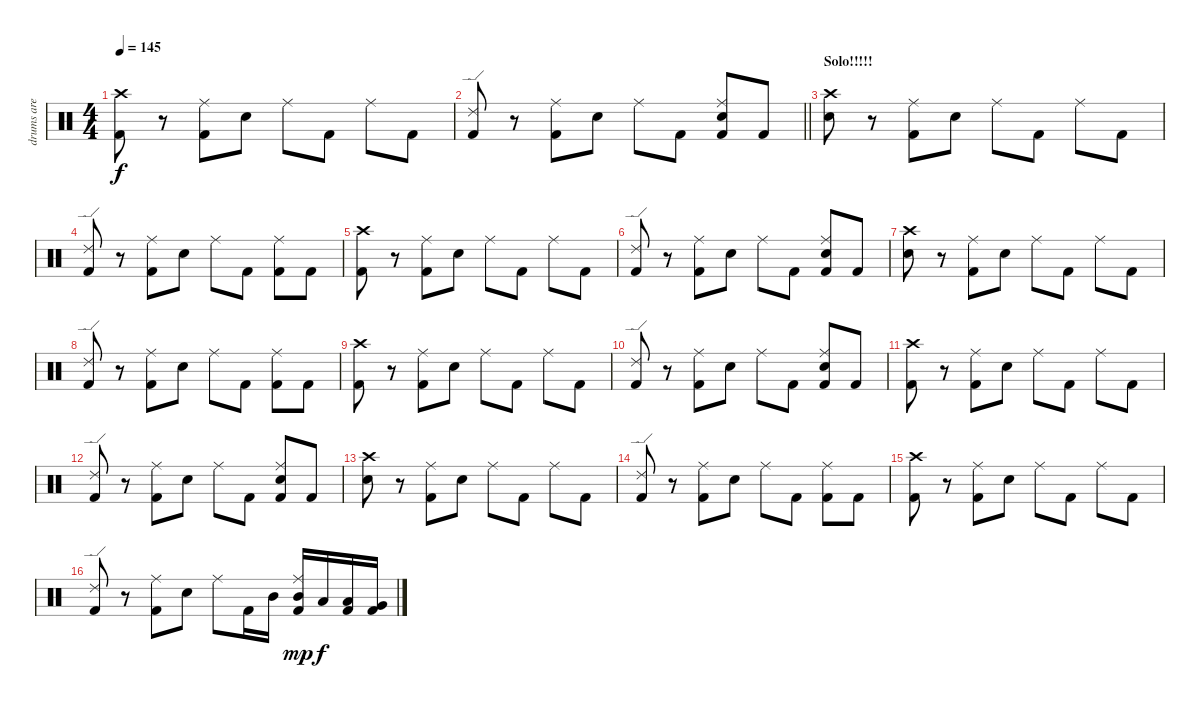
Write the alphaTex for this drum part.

\track ("drums are cool   >.<" "drums are ") {instrument percussion}
\staff {score}
\articulation defaults
\ts (4 4)
\tempo 145
\clef neutral
\ks c
("Crash high (hit)" "Kick (hit) 2").8{dy f} r.8 ("Ride (middle)" "Kick (hit) 2").8 "Snare (hit) 2".8 "Ride (middle)".8 "Kick (hit) 2".8 "Ride (middle)".8 "Kick (hit) 2".8 |
\barLineRight lightlight
("Ride (edge) 2" "Kick (hit) 2").8 r.8 ("Ride (middle)" "Kick (hit) 2").8 "Snare (hit) 2".8 "Ride (middle)".8 "Kick (hit) 2".8 ("Ride (middle)" "Snare (hit) 2" "Kick (hit) 2").8 "Kick (hit) 2".8 |
\section ("" "Solo!!!!!")
("Crash high (hit)" "Snare (hit) 2").8 r.8 ("Ride (middle)" "Kick (hit) 2").8 "Snare (hit) 2".8 "Ride (middle)".8 "Kick (hit) 2".8 "Ride (middle)".8 "Kick (hit) 2".8 |
("Ride (edge) 2" "Kick (hit) 2").8 r.8 ("Ride (middle)" "Kick (hit) 2").8 "Snare (hit) 2".8 "Ride (middle)".8 "Kick (hit) 2".8 ("Ride (middle)" "Kick (hit) 2").8 "Kick (hit) 2".8 |
("Crash high (hit)" "Kick (hit) 2").8 r.8 ("Ride (middle)" "Kick (hit) 2").8 "Snare (hit) 2".8 "Ride (middle)".8 "Kick (hit) 2".8 "Ride (middle)".8 "Kick (hit) 2".8 |
("Ride (edge) 2" "Kick (hit) 2").8 r.8 ("Ride (middle)" "Kick (hit) 2").8 "Snare (hit) 2".8 "Ride (middle)".8 "Kick (hit) 2".8 ("Ride (middle)" "Snare (hit) 2" "Kick (hit) 2").8 "Kick (hit) 2".8 |
("Crash high (hit)" "Snare (hit) 2").8 r.8 ("Ride (middle)" "Kick (hit) 2").8 "Snare (hit) 2".8 "Ride (middle)".8 "Kick (hit) 2".8 "Ride (middle)".8 "Kick (hit) 2".8 |
("Ride (edge) 2" "Kick (hit) 2").8 r.8 ("Ride (middle)" "Kick (hit) 2").8 "Snare (hit) 2".8 "Ride (middle)".8 "Kick (hit) 2".8 ("Ride (middle)" "Kick (hit) 2").8 "Kick (hit) 2".8 |
("Crash high (hit)" "Kick (hit) 2").8 r.8 ("Ride (middle)" "Kick (hit) 2").8 "Snare (hit) 2".8 "Ride (middle)".8 "Kick (hit) 2".8 "Ride (middle)".8 "Kick (hit) 2".8 |
("Ride (edge) 2" "Kick (hit) 2").8 r.8 ("Ride (middle)" "Kick (hit) 2").8 "Snare (hit) 2".8 "Ride (middle)".8 "Kick (hit) 2".8 ("Ride (middle)" "Snare (hit) 2" "Kick (hit) 2").8 "Kick (hit) 2".8 |
("Crash high (hit)" "Kick (hit) 2").8 r.8 ("Ride (middle)" "Kick (hit) 2").8 "Snare (hit) 2".8 "Ride (middle)".8 "Kick (hit) 2".8 "Ride (middle)".8 "Kick (hit) 2".8 |
("Ride (edge) 2" "Kick (hit) 2").8 r.8 ("Ride (middle)" "Kick (hit) 2").8 "Snare (hit) 2".8 "Ride (middle)".8 "Kick (hit) 2".8 ("Ride (middle)" "Snare (hit) 2" "Kick (hit) 2").8 "Kick (hit) 2".8 |
("Crash high (hit)" "Snare (hit) 2").8 r.8 ("Ride (middle)" "Kick (hit) 2").8 "Snare (hit) 2".8 "Ride (middle)".8 "Kick (hit) 2".8 "Ride (middle)".8 "Kick (hit) 2".8 |
("Ride (edge) 2" "Kick (hit) 2").8 r.8 ("Ride (middle)" "Kick (hit) 2").8 "Snare (hit) 2".8 "Ride (middle)".8 "Kick (hit) 2".8 ("Ride (middle)" "Kick (hit) 2").8 "Kick (hit) 2".8 |
("Crash high (hit)" "Kick (hit) 2").8 r.8 ("Ride (middle)" "Kick (hit) 2").8 "Snare (hit) 2".8 "Ride (middle)".8 "Kick (hit) 2".8 "Ride (middle)".8 "Kick (hit) 2".8 |
("Ride (edge) 2" "Kick (hit) 2").8 r.8 ("Ride (middle)" "Kick (hit) 2").8 "Snare (hit) 2".8 "Ride (middle)".8 "Kick (hit) 2".16 "Mid Tom (hit)".16 ("Ride (middle)" "Mid Tom (hit)" "Kick (hit) 2").16{dy mp} "Low Tom (hit)".16{dy f} ("Low Tom (hit)" "Kick (hit) 2").16 ("Very Low Tom (hit)" "Kick (hit) 2").16
